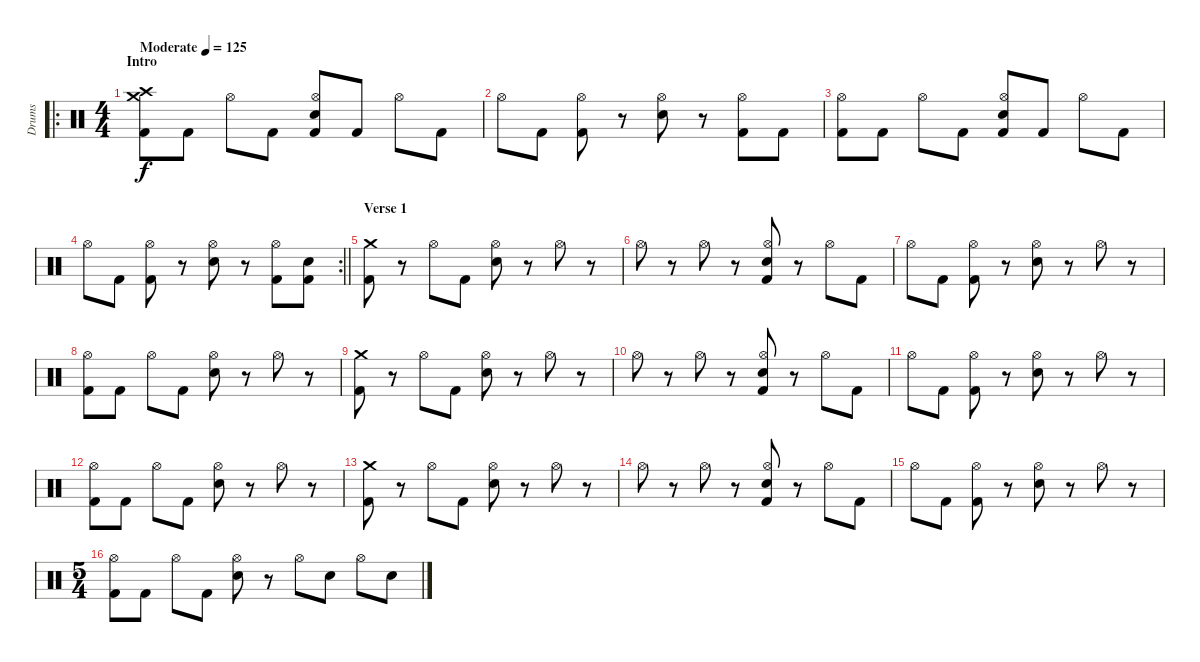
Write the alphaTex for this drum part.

\track ("Drums " "Drums ") {instrument percussion}
\staff {score}
\articulation defaults
\ro
\ts (4 4)
\section ("" "Intro ")
\tempo (125 "Moderate")
\clef neutral
\ks c
("Crash medium (hit)" "Crash high (hit)" "Kick (hit) 2").8{dy f} "Kick (hit) 2".8 "Hi-Hat (open)".8 "Kick (hit) 2".8 ("Hi-Hat (open)" "Electric Snare (hit)" "Kick (hit) 2").8 "Kick (hit) 2".8 "Hi-Hat (open)".8 "Kick (hit) 2".8 |
"Hi-Hat (open)".8 "Kick (hit) 2".8 ("Hi-Hat (open)" "Kick (hit) 2").8 r.8 ("Hi-Hat (open)" "Electric Snare (hit)").8 r.8 ("Hi-Hat (open)" "Kick (hit) 2").8 "Kick (hit) 2".8 |
("Hi-Hat (open)" "Kick (hit) 2").8 "Kick (hit) 2".8 "Hi-Hat (open)".8 "Kick (hit) 2".8 ("Hi-Hat (open)" "Electric Snare (hit)" "Kick (hit) 2").8 "Kick (hit) 2".8 "Hi-Hat (open)".8 "Kick (hit) 2".8 |
\rc 2
\barLineRight lightlight "Hi-Hat (open)".8 "Kick (hit) 2".8
("Hi-Hat (open)" "Kick (hit) 2").8 r.8 ("Hi-Hat (open)" "Electric Snare (hit)").8 r.8 ("Hi-Hat (open)" "Kick (hit) 2").8 ("Electric Snare (hit)" "Kick (hit) 2").8 |
\section ("" "Verse 1 ")
("Crash medium (hit)" "Kick (hit) 2").8 r.8 "Hi-Hat (open)".8 "Kick (hit) 2".8 ("Hi-Hat (open)" "Electric Snare (hit)").8 r.8 "Hi-Hat (open)".8 r.8 |
"Hi-Hat (open)".8 r.8 "Hi-Hat (open)".8 r.8 ("Hi-Hat (open)" "Electric Snare (hit)" "Kick (hit) 2").8 r.8 "Hi-Hat (open)".8 "Kick (hit) 2".8 |
"Hi-Hat (open)".8 "Kick (hit) 2".8 ("Hi-Hat (open)" "Kick (hit) 2").8 r.8 ("Hi-Hat (open)" "Electric Snare (hit)").8 r.8 "Hi-Hat (open)".8 r.8 |
("Hi-Hat (open)" "Kick (hit) 2").8 "Kick (hit) 2".8 "Hi-Hat (open)".8 "Kick (hit) 2".8 ("Hi-Hat (open)" "Electric Snare (hit)").8 r.8 "Hi-Hat (open)".8 r.8 |
("Crash medium (hit)" "Kick (hit) 2").8 r.8 "Hi-Hat (open)".8 "Kick (hit) 2".8 ("Hi-Hat (open)" "Electric Snare (hit)").8 r.8 "Hi-Hat (open)".8 r.8 |
"Hi-Hat (open)".8 r.8 "Hi-Hat (open)".8 r.8 ("Hi-Hat (open)" "Electric Snare (hit)" "Kick (hit) 2").8 r.8 "Hi-Hat (open)".8 "Kick (hit) 2".8 |
"Hi-Hat (open)".8 "Kick (hit) 2".8 ("Hi-Hat (open)" "Kick (hit) 2").8 r.8 ("Hi-Hat (open)" "Electric Snare (hit)").8 r.8 "Hi-Hat (open)".8 r.8 |
("Hi-Hat (open)" "Kick (hit) 2").8 "Kick (hit) 2".8 "Hi-Hat (open)".8 "Kick (hit) 2".8 ("Hi-Hat (open)" "Electric Snare (hit)").8 r.8 "Hi-Hat (open)".8 r.8 |
("Crash medium (hit)" "Kick (hit) 2").8 r.8 "Hi-Hat (open)".8 "Kick (hit) 2".8 ("Hi-Hat (open)" "Electric Snare (hit)").8 r.8 "Hi-Hat (open)".8 r.8 |
"Hi-Hat (open)".8 r.8 "Hi-Hat (open)".8 r.8 ("Hi-Hat (open)" "Electric Snare (hit)" "Kick (hit) 2").8 r.8 "Hi-Hat (open)".8 "Kick (hit) 2".8 |
"Hi-Hat (open)".8 "Kick (hit) 2".8 ("Hi-Hat (open)" "Kick (hit) 2").8 r.8 ("Hi-Hat (open)" "Electric Snare (hit)").8 r.8 "Hi-Hat (open)".8 r.8 |
\ts (5 4)
("Hi-Hat (open)" "Kick (hit) 2").8 "Kick (hit) 2".8 "Hi-Hat (open)".8 "Kick (hit) 2".8 ("Hi-Hat (open)" "Electric Snare (hit)").8 r.8 "Hi-Hat (open)".8 "Electric Snare (hit)".8 "Hi-Hat (open)".8 "Electric Snare (hit)".8
